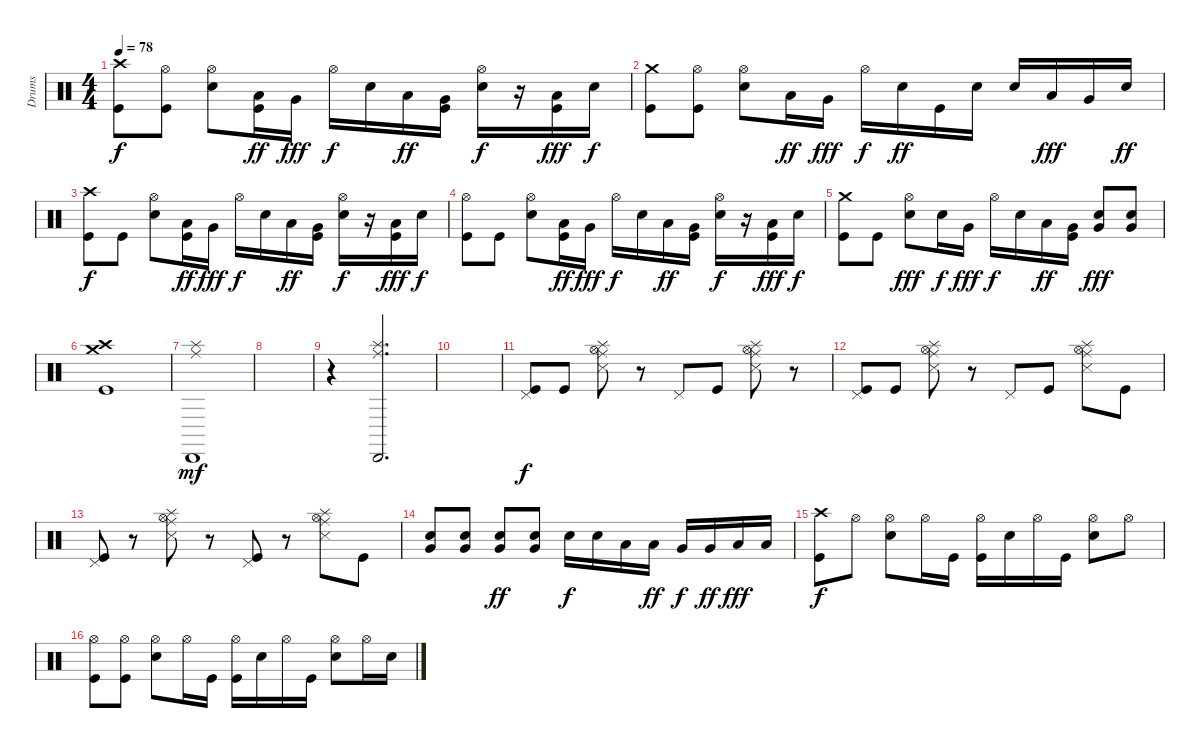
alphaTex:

\track ("Drums" "Drums") {instrument percussion}
\staff {score}
\articulation defaults
\ts (4 4)
\tempo 78
\clef neutral
\ks c
("Crash high (hit)" "Kick (hit)").8{dy f} ("Hi-Hat (open)" "Kick (hit)").8 ("Hi-Hat (open)" "Electric Snare (hit)").8 ("Low Tom (hit)" "Kick (hit)").16{dy ff} "Very Low Tom (hit)".16{dy fff} "Hi-Hat (open)".16{dy f} "Electric Snare (hit)".16 "Low Tom (hit)".16{dy ff} ("Very Low Tom (hit)" "Kick (hit)").16 ("Hi-Hat (open)" "Electric Snare (hit)").16{dy f} r.16 ("Low Floor Tom (hit)" "Kick (hit)").16{dy fff} "Electric Snare (hit)".16{dy f} |
("Crash medium (hit)" "Kick (hit)").8 ("Hi-Hat (open)" "Kick (hit)").8 ("Hi-Hat (open)" "Electric Snare (hit)").8 "Low Tom (hit)".16{dy ff} "Very Low Tom (hit)".16{dy fff} "Hi-Hat (open)".16{dy f} "Electric Snare (hit)".16{dy ff} "Kick (hit)".16 "Electric Snare (hit)".16 "Electric Snare (hit)".16 "Low Tom (hit)".16{dy fff} "Very Low Tom (hit)".16 "Electric Snare (hit)".16{dy ff} |
("Crash high (hit)" "Kick (hit)").8{dy f} "Kick (hit)".8 ("Hi-Hat (open)" "Electric Snare (hit)").8 ("Low Tom (hit)" "Kick (hit)").16{dy ff} "Very Low Tom (hit)".16{dy fff} "Hi-Hat (open)".16{dy f} "Electric Snare (hit)".16 "Low Tom (hit)".16{dy ff} ("Very Low Tom (hit)" "Kick (hit)").16 ("Hi-Hat (open)" "Electric Snare (hit)").16{dy f} r.16 ("Low Floor Tom (hit)" "Kick (hit)").16{dy fff} "Electric Snare (hit)".16{dy f} |
("Hi-Hat (open)" "Kick (hit)").8 "Kick (hit)".8 ("Hi-Hat (open)" "Electric Snare (hit)").8 ("Low Tom (hit)" "Kick (hit)").16{dy ff} "Very Low Tom (hit)".16{dy fff} "Hi-Hat (open)".16{dy f} "Electric Snare (hit)".16 "Low Tom (hit)".16{dy ff} ("Very Low Tom (hit)" "Kick (hit)").16 ("Hi-Hat (open)" "Electric Snare (hit)").16{dy f} r.16 ("Low Floor Tom (hit)" "Kick (hit)").16{dy fff} "Electric Snare (hit)".16{dy f} |
("Crash medium (hit)" "Kick (hit)").8 "Kick (hit)".8 ("Hi-Hat (open)" "Electric Snare (hit)").8{dy fff} "Electric Snare (hit)".16{dy f} "Very Low Tom (hit)".16{dy fff} "Hi-Hat (open)".16{dy f} "Electric Snare (hit)".16 "Low Tom (hit)".16{dy ff} ("Very Low Tom (hit)" "Kick (hit)").16 ("Very Low Tom (hit)" "Electric Snare (hit)").8{dy fff} ("Very Low Tom (hit)" "Electric Snare (hit)").8 |
("Crash high (hit)" "Crash medium (hit)" "Kick (hit)").1 |
("Ride (middle)" "Splash (hit)" "Cabasa (hit)").1{dy mf} |
|
r.4 ("Cabasa (hit)" "Ride (middle)" "Splash (hit)").2{d} |
|
("Pedal Hi-Hat (hit)" "Kick (hit)").8{dy f} "Kick (hit)".8 ("Splash (hit)" "Ride (middle)" "Hi-Hat (open)" "Snare (side stick) 3").8 r.8 "Pedal Hi-Hat (hit)".8 "Kick (hit)".8 ("Splash (hit)" "Ride (middle)" "Hi-Hat (open)" "Snare (side stick) 3").8 r.8 |
("Pedal Hi-Hat (hit)" "Kick (hit)").8 "Kick (hit)".8 ("Splash (hit)" "Ride (middle)" "Hi-Hat (open)" "Snare (side stick) 3").8 r.8 "Pedal Hi-Hat (hit)".8 "Kick (hit)".8 ("Splash (hit)" "Ride (middle)" "Hi-Hat (open)" "Snare (side stick) 3").8 "Kick (hit)".8 |
("Pedal Hi-Hat (hit)" "Kick (hit)").8 r.8 ("Splash (hit)" "Ride (middle)" "Hi-Hat (open)" "Snare (side stick) 3").8 r.8 ("Pedal Hi-Hat (hit)" "Kick (hit)").8 r.8 ("Splash (hit)" "Ride (middle)" "Hi-Hat (open)" "Snare (side stick) 3").8 "Kick (hit)".8 |
("Very Low Tom (hit)" "Electric Snare (hit)").8{bd 30} ("Very Low Tom (hit)" "Electric Snare (hit)").8{bd 30} ("Very Low Tom (hit)" "Electric Snare (hit)").8{bd 30 dy ff} ("Very Low Tom (hit)" "Electric Snare (hit)").8{bd 30} "Electric Snare (hit)".16{dy f} "Electric Snare (hit)".16 "Low Tom (hit)".16 "Low Tom (hit)".16{dy ff} "Very Low Tom (hit)".16{dy f} "Very Low Tom (hit)".16{dy ff} "Low Floor Tom (hit)".16{dy fff} "Low Floor Tom (hit)".16 |
("Crash high (hit)" "Kick (hit)").8{dy f} "Hi-Hat (open)".8 ("Hi-Hat (open)" "Electric Snare (hit)").8 "Hi-Hat (open)".16 "Kick (hit)".16 ("Hi-Hat (open)" "Kick (hit)").16 "Electric Snare (hit)".16 "Hi-Hat (open)".16 "Kick (hit)".16 ("Hi-Hat (open)" "Electric Snare (hit)").8 "Hi-Hat (open)".8 |
("Hi-Hat (open)" "Kick (hit)").8 ("Hi-Hat (open)" "Kick (hit)").8 ("Hi-Hat (open)" "Electric Snare (hit)").8 "Hi-Hat (open)".16 "Kick (hit)".16 ("Hi-Hat (open)" "Kick (hit)").16 "Electric Snare (hit)".16 "Hi-Hat (open)".16 "Kick (hit)".16 ("Hi-Hat (open)" "Electric Snare (hit)").8 "Hi-Hat (open)".16 "Electric Snare (hit)".16
